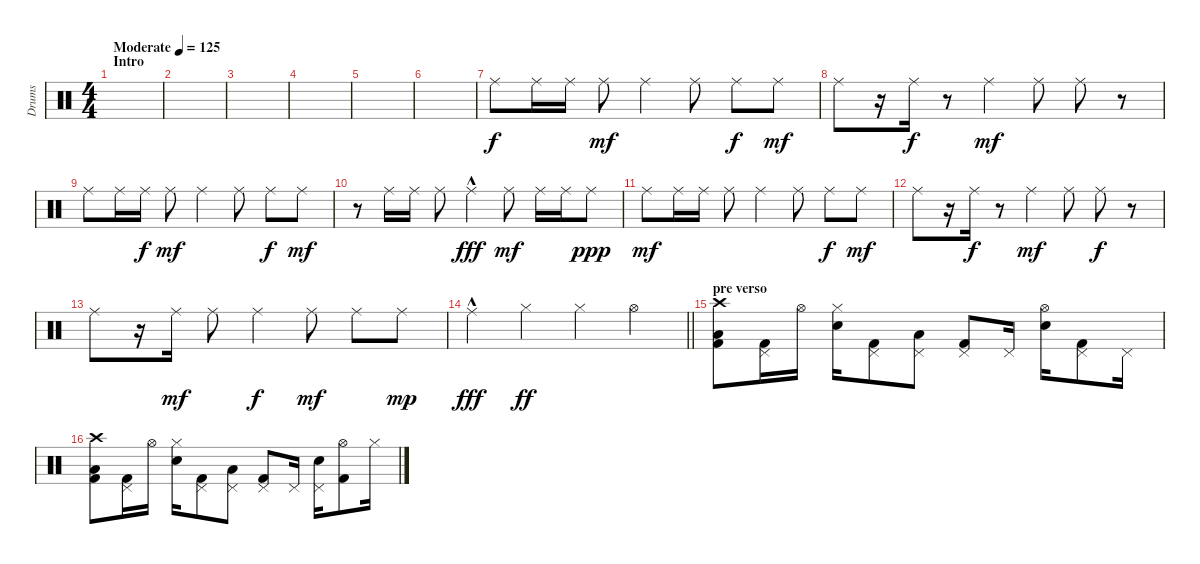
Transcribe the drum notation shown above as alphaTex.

\track ("Drums" "Drums") {instrument percussion}
\staff {score}
\articulation defaults
\ts (4 4)
\section ("" "Intro")
\tempo (125 "Moderate")
\clef neutral
\ks c
|
|
|
|
|
|
"Ride (middle)".8 "Ride (middle)".16 "Ride (middle)".16{dy f} "Ride (middle)".8{dy mf} "Ride (middle)".4 "Ride (middle)".8 "Ride (middle)".8{dy f} "Ride (middle)".8{dy mf} |
"Ride (middle)".8 r.16 "Ride (middle)".16{dy f} r.8 "Ride (middle)".4{dy mf} "Ride (middle)".8 "Ride (middle)".8 r.8 |
"Ride (middle)".8 "Ride (middle)".16 "Ride (middle)".16{dy f} "Ride (middle)".8{dy mf} "Ride (middle)".4 "Ride (middle)".8 "Ride (middle)".8{dy f} "Ride (middle)".8{dy mf} |
r.8 "Ride (middle)".16 "Ride (middle)".16 "Ride (middle)".8 "Ride (middle)"{hac}.4{dy fff} "Ride (middle)".8{dy mf} "Ride (middle)".16 "Ride (middle)".16 "Ride (middle)".8{dy ppp} |
"Ride (middle)".8{dy mf} "Ride (middle)".16 "Ride (middle)".16 "Ride (middle)".8 "Ride (middle)".4 "Ride (middle)".8 "Ride (middle)".8{dy f} "Ride (middle)".8{dy mf} |
"Ride (middle)".8 r.16 "Ride (middle)".16{dy f} r.8 "Ride (middle)".4{dy mf} "Ride (middle)".8 "Ride (middle)".8{dy f} r.8 |
"Ride (middle)".8 r.16 "Ride (middle)".16{dy mf} "Ride (middle)".8 "Ride (middle)".4{dy f} "Ride (middle)".8{dy mf} "Ride (middle)".8 "Ride (middle)".8{dy mp} |
\barLineRight lightlight "Ride (middle)"{hac}.4{dy fff} "Hi-Hat (closed)".4{dy ff} "Hi-Hat (closed)".4 "Hi-Hat (open)".4
|
\section ("" "pre verso")
("Low Tom (hit)" "Kick (hit) 2" "Crash high (hit)").8 ("Kick (hit) 2" "Pedal Hi-Hat (hit)").16 "Hi-Hat (open)".16 ("Snare (hit) 2" "Hi-Hat (closed)").16 ("Kick (hit) 2" "Pedal Hi-Hat (hit)").8 ("Low Tom (hit)" "Pedal Hi-Hat (hit)").8 ("Kick (hit) 2" "Pedal Hi-Hat (hit)").8 "Pedal Hi-Hat (hit)".16 ("Snare (hit) 2" "Hi-Hat (open)").16 ("Kick (hit) 2" "Pedal Hi-Hat (hit)").8 "Pedal Hi-Hat (hit)".16 |
("Low Tom (hit)" "Kick (hit) 2" "Crash high (hit)").8 ("Kick (hit) 2" "Pedal Hi-Hat (hit)").16 "Hi-Hat (open)".16 ("Snare (hit) 2" "Hi-Hat (closed)").16 ("Kick (hit) 2" "Pedal Hi-Hat (hit)").8 ("Low Tom (hit)" "Pedal Hi-Hat (hit)").8 ("Kick (hit) 2" "Pedal Hi-Hat (hit)").8 "Pedal Hi-Hat (hit)".16 ("Snare (hit) 2" "Pedal Hi-Hat (hit)").16 ("Kick (hit) 2" "Hi-Hat (open)").8 "Hi-Hat (closed)".16
